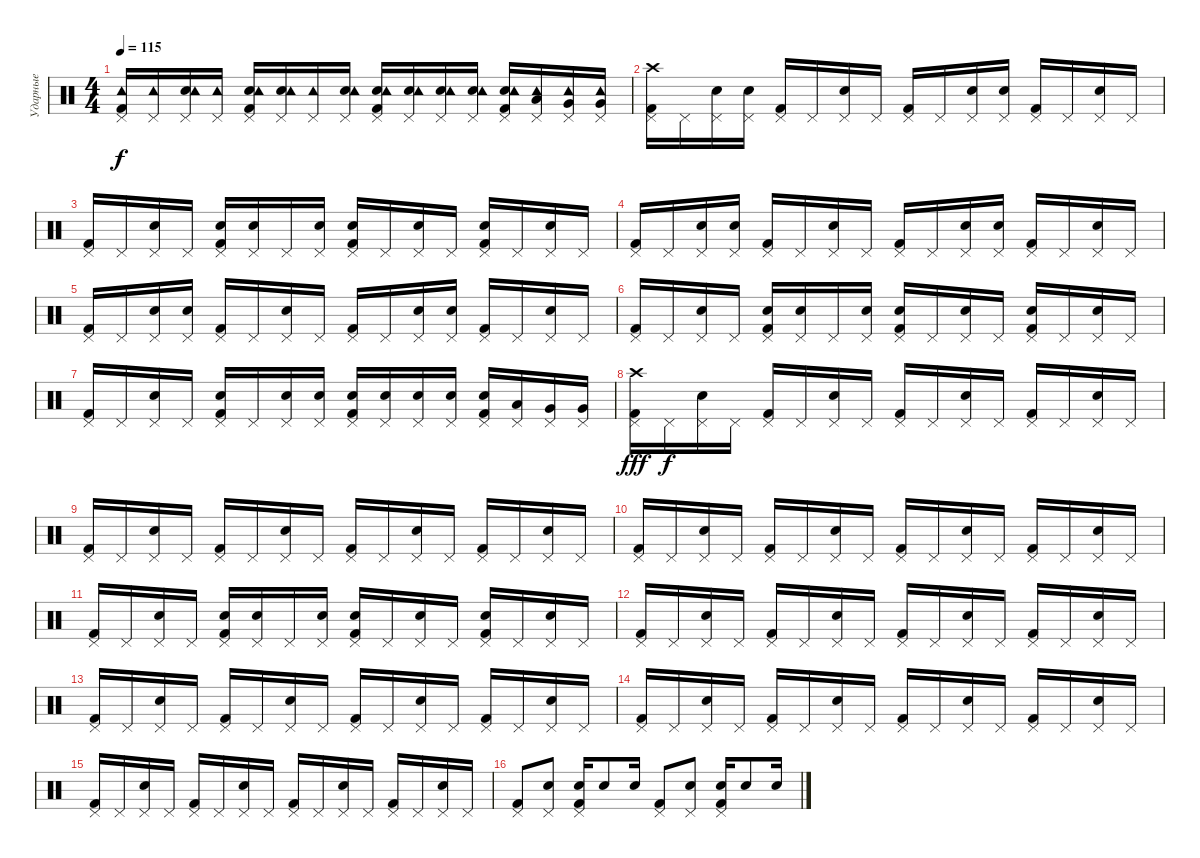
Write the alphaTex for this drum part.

\track ("Ударные" "Ударные") {instrument percussion}
\staff {score}
\articulation defaults
\ts (4 4)
\tempo 115
\clef neutral
\ks c
("Kick (hit) 2" "Pedal Hi-Hat (hit)" "Tambourine (hit)").16{dy f} ("Pedal Hi-Hat (hit)" "Tambourine (hit)").16 ("Pedal Hi-Hat (hit)" "Snare (hit) 2" "Tambourine (hit)").16 ("Pedal Hi-Hat (hit)" "Tambourine (hit)").16 ("Kick (hit) 2" "Pedal Hi-Hat (hit)" "Snare (hit) 2" "Tambourine (hit)").16 ("Pedal Hi-Hat (hit)" "Snare (hit) 2" "Tambourine (hit)").16 ("Pedal Hi-Hat (hit)" "Tambourine (hit)").16 ("Pedal Hi-Hat (hit)" "Snare (hit) 2" "Tambourine (hit)").16 ("Kick (hit) 2" "Pedal Hi-Hat (hit)" "Snare (hit) 2" "Tambourine (hit)").16 ("Pedal Hi-Hat (hit)" "Snare (hit) 2" "Tambourine (hit)").16 ("Pedal Hi-Hat (hit)" "Snare (hit) 2" "Tambourine (hit)").16 ("Pedal Hi-Hat (hit)" "Snare (hit) 2" "Tambourine (hit)").16 ("Kick (hit) 2" "Pedal Hi-Hat (hit)" "Snare (hit) 2" "Tambourine (hit)").16 ("Pedal Hi-Hat (hit)" "Low Tom (hit)" "Tambourine (hit)").16 ("Pedal Hi-Hat (hit)" "Very Low Tom (hit)" "Tambourine (hit)").16 ("Pedal Hi-Hat (hit)" "Very Low Tom (hit)" "Tambourine (hit)").16 |
("Kick (hit) 2" "Pedal Hi-Hat (hit)" "Crash high (hit)").16 "Pedal Hi-Hat (hit)".16 ("Pedal Hi-Hat (hit)" "Snare (hit) 2").16 ("Pedal Hi-Hat (hit)" "Snare (hit) 2").16 ("Kick (hit) 2" "Pedal Hi-Hat (hit)").16 "Pedal Hi-Hat (hit)".16 ("Pedal Hi-Hat (hit)" "Snare (hit) 2").16 "Pedal Hi-Hat (hit)".16 ("Kick (hit) 2" "Pedal Hi-Hat (hit)").16 "Pedal Hi-Hat (hit)".16 ("Pedal Hi-Hat (hit)" "Snare (hit) 2").16 ("Pedal Hi-Hat (hit)" "Snare (hit) 2").16 ("Kick (hit) 2" "Pedal Hi-Hat (hit)").16 "Pedal Hi-Hat (hit)".16 ("Pedal Hi-Hat (hit)" "Snare (hit) 2").16 "Pedal Hi-Hat (hit)".16 |
("Kick (hit) 2" "Pedal Hi-Hat (hit)").16 "Pedal Hi-Hat (hit)".16 ("Pedal Hi-Hat (hit)" "Snare (hit) 2").16 "Pedal Hi-Hat (hit)".16 ("Kick (hit) 2" "Pedal Hi-Hat (hit)" "Snare (hit) 2").16 ("Pedal Hi-Hat (hit)" "Snare (hit) 2").16 "Pedal Hi-Hat (hit)".16 ("Pedal Hi-Hat (hit)" "Snare (hit) 2").16 ("Kick (hit) 2" "Pedal Hi-Hat (hit)" "Snare (hit) 2").16 "Pedal Hi-Hat (hit)".16 ("Pedal Hi-Hat (hit)" "Snare (hit) 2").16 "Pedal Hi-Hat (hit)".16 ("Kick (hit) 2" "Pedal Hi-Hat (hit)" "Snare (hit) 2").16 "Pedal Hi-Hat (hit)".16 ("Pedal Hi-Hat (hit)" "Snare (hit) 2").16 "Pedal Hi-Hat (hit)".16 |
("Kick (hit) 2" "Pedal Hi-Hat (hit)").16 "Pedal Hi-Hat (hit)".16 ("Pedal Hi-Hat (hit)" "Snare (hit) 2").16 ("Pedal Hi-Hat (hit)" "Snare (hit) 2").16 ("Kick (hit) 2" "Pedal Hi-Hat (hit)").16 "Pedal Hi-Hat (hit)".16 ("Pedal Hi-Hat (hit)" "Snare (hit) 2").16 "Pedal Hi-Hat (hit)".16 ("Kick (hit) 2" "Pedal Hi-Hat (hit)").16 "Pedal Hi-Hat (hit)".16 ("Pedal Hi-Hat (hit)" "Snare (hit) 2").16 ("Pedal Hi-Hat (hit)" "Snare (hit) 2").16 ("Kick (hit) 2" "Pedal Hi-Hat (hit)").16 "Pedal Hi-Hat (hit)".16 ("Pedal Hi-Hat (hit)" "Snare (hit) 2").16 "Pedal Hi-Hat (hit)".16 |
("Kick (hit) 2" "Pedal Hi-Hat (hit)").16 "Pedal Hi-Hat (hit)".16 ("Pedal Hi-Hat (hit)" "Snare (hit) 2").16 ("Pedal Hi-Hat (hit)" "Snare (hit) 2").16 ("Kick (hit) 2" "Pedal Hi-Hat (hit)").16 "Pedal Hi-Hat (hit)".16 ("Pedal Hi-Hat (hit)" "Snare (hit) 2").16 "Pedal Hi-Hat (hit)".16 ("Kick (hit) 2" "Pedal Hi-Hat (hit)").16 "Pedal Hi-Hat (hit)".16 ("Pedal Hi-Hat (hit)" "Snare (hit) 2").16 ("Pedal Hi-Hat (hit)" "Snare (hit) 2").16 ("Kick (hit) 2" "Pedal Hi-Hat (hit)").16 "Pedal Hi-Hat (hit)".16 ("Pedal Hi-Hat (hit)" "Snare (hit) 2").16 "Pedal Hi-Hat (hit)".16 |
("Kick (hit) 2" "Pedal Hi-Hat (hit)").16 "Pedal Hi-Hat (hit)".16 ("Pedal Hi-Hat (hit)" "Snare (hit) 2").16 "Pedal Hi-Hat (hit)".16 ("Kick (hit) 2" "Pedal Hi-Hat (hit)" "Snare (hit) 2").16 ("Pedal Hi-Hat (hit)" "Snare (hit) 2").16 "Pedal Hi-Hat (hit)".16 ("Pedal Hi-Hat (hit)" "Snare (hit) 2").16 ("Kick (hit) 2" "Pedal Hi-Hat (hit)" "Snare (hit) 2").16 "Pedal Hi-Hat (hit)".16 ("Pedal Hi-Hat (hit)" "Snare (hit) 2").16 "Pedal Hi-Hat (hit)".16 ("Kick (hit) 2" "Pedal Hi-Hat (hit)" "Snare (hit) 2").16 "Pedal Hi-Hat (hit)".16 ("Pedal Hi-Hat (hit)" "Snare (hit) 2").16 "Pedal Hi-Hat (hit)".16 |
("Kick (hit) 2" "Pedal Hi-Hat (hit)").16 "Pedal Hi-Hat (hit)".16 ("Pedal Hi-Hat (hit)" "Snare (hit) 2").16 "Pedal Hi-Hat (hit)".16 ("Kick (hit) 2" "Pedal Hi-Hat (hit)" "Snare (hit) 2").16 "Pedal Hi-Hat (hit)".16 ("Pedal Hi-Hat (hit)" "Snare (hit) 2").16 ("Pedal Hi-Hat (hit)" "Snare (hit) 2").16 ("Kick (hit) 2" "Pedal Hi-Hat (hit)" "Snare (hit) 2").16 ("Pedal Hi-Hat (hit)" "Snare (hit) 2").16 ("Pedal Hi-Hat (hit)" "Snare (hit) 2").16 ("Pedal Hi-Hat (hit)" "Snare (hit) 2").16 ("Kick (hit) 2" "Pedal Hi-Hat (hit)" "Snare (hit) 2").16 ("Pedal Hi-Hat (hit)" "Low Tom (hit)").16 ("Pedal Hi-Hat (hit)" "Very Low Tom (hit)").16 ("Pedal Hi-Hat (hit)" "Very Low Tom (hit)").16 |
("Kick (hit) 2" "Pedal Hi-Hat (hit)" "Crash high (hit)").16{dy fff} "Pedal Hi-Hat (hit)".16{dy f} ("Pedal Hi-Hat (hit)" "Snare (hit) 2").16 "Pedal Hi-Hat (hit)".16 ("Kick (hit) 2" "Pedal Hi-Hat (hit)").16 "Pedal Hi-Hat (hit)".16 ("Pedal Hi-Hat (hit)" "Snare (hit) 2").16 "Pedal Hi-Hat (hit)".16 ("Kick (hit) 2" "Pedal Hi-Hat (hit)").16 "Pedal Hi-Hat (hit)".16 ("Pedal Hi-Hat (hit)" "Snare (hit) 2").16 "Pedal Hi-Hat (hit)".16 ("Kick (hit) 2" "Pedal Hi-Hat (hit)").16 "Pedal Hi-Hat (hit)".16 ("Pedal Hi-Hat (hit)" "Snare (hit) 2").16 "Pedal Hi-Hat (hit)".16 |
("Kick (hit) 2" "Pedal Hi-Hat (hit)").16 "Pedal Hi-Hat (hit)".16 ("Pedal Hi-Hat (hit)" "Snare (hit) 2").16 "Pedal Hi-Hat (hit)".16 ("Kick (hit) 2" "Pedal Hi-Hat (hit)").16 "Pedal Hi-Hat (hit)".16 ("Pedal Hi-Hat (hit)" "Snare (hit) 2").16 "Pedal Hi-Hat (hit)".16 ("Kick (hit) 2" "Pedal Hi-Hat (hit)").16 "Pedal Hi-Hat (hit)".16 ("Pedal Hi-Hat (hit)" "Snare (hit) 2").16 "Pedal Hi-Hat (hit)".16 ("Kick (hit) 2" "Pedal Hi-Hat (hit)").16 "Pedal Hi-Hat (hit)".16 ("Pedal Hi-Hat (hit)" "Snare (hit) 2").16 "Pedal Hi-Hat (hit)".16 |
("Kick (hit) 2" "Pedal Hi-Hat (hit)").16 "Pedal Hi-Hat (hit)".16 ("Pedal Hi-Hat (hit)" "Snare (hit) 2").16 "Pedal Hi-Hat (hit)".16 ("Kick (hit) 2" "Pedal Hi-Hat (hit)").16 "Pedal Hi-Hat (hit)".16 ("Pedal Hi-Hat (hit)" "Snare (hit) 2").16 "Pedal Hi-Hat (hit)".16 ("Kick (hit) 2" "Pedal Hi-Hat (hit)").16 "Pedal Hi-Hat (hit)".16 ("Pedal Hi-Hat (hit)" "Snare (hit) 2").16 "Pedal Hi-Hat (hit)".16 ("Kick (hit) 2" "Pedal Hi-Hat (hit)").16 "Pedal Hi-Hat (hit)".16 ("Pedal Hi-Hat (hit)" "Snare (hit) 2").16 "Pedal Hi-Hat (hit)".16 |
("Kick (hit) 2" "Pedal Hi-Hat (hit)").16 "Pedal Hi-Hat (hit)".16 ("Pedal Hi-Hat (hit)" "Snare (hit) 2").16 "Pedal Hi-Hat (hit)".16 ("Kick (hit) 2" "Pedal Hi-Hat (hit)" "Snare (hit) 2").16 ("Pedal Hi-Hat (hit)" "Snare (hit) 2").16 "Pedal Hi-Hat (hit)".16 ("Pedal Hi-Hat (hit)" "Snare (hit) 2").16 ("Kick (hit) 2" "Pedal Hi-Hat (hit)" "Snare (hit) 2").16 "Pedal Hi-Hat (hit)".16 ("Pedal Hi-Hat (hit)" "Snare (hit) 2").16 "Pedal Hi-Hat (hit)".16 ("Kick (hit) 2" "Pedal Hi-Hat (hit)" "Snare (hit) 2").16 "Pedal Hi-Hat (hit)".16 ("Pedal Hi-Hat (hit)" "Snare (hit) 2").16 "Pedal Hi-Hat (hit)".16 |
("Kick (hit) 2" "Pedal Hi-Hat (hit)").16 "Pedal Hi-Hat (hit)".16 ("Pedal Hi-Hat (hit)" "Snare (hit) 2").16 "Pedal Hi-Hat (hit)".16 ("Kick (hit) 2" "Pedal Hi-Hat (hit)").16 "Pedal Hi-Hat (hit)".16 ("Pedal Hi-Hat (hit)" "Snare (hit) 2").16 "Pedal Hi-Hat (hit)".16 ("Kick (hit) 2" "Pedal Hi-Hat (hit)").16 "Pedal Hi-Hat (hit)".16 ("Pedal Hi-Hat (hit)" "Snare (hit) 2").16 "Pedal Hi-Hat (hit)".16 ("Kick (hit) 2" "Pedal Hi-Hat (hit)").16 "Pedal Hi-Hat (hit)".16 ("Pedal Hi-Hat (hit)" "Snare (hit) 2").16 "Pedal Hi-Hat (hit)".16 |
("Kick (hit) 2" "Pedal Hi-Hat (hit)").16 "Pedal Hi-Hat (hit)".16 ("Pedal Hi-Hat (hit)" "Snare (hit) 2").16 "Pedal Hi-Hat (hit)".16 ("Kick (hit) 2" "Pedal Hi-Hat (hit)").16 "Pedal Hi-Hat (hit)".16 ("Pedal Hi-Hat (hit)" "Snare (hit) 2").16 "Pedal Hi-Hat (hit)".16 ("Kick (hit) 2" "Pedal Hi-Hat (hit)").16 "Pedal Hi-Hat (hit)".16 ("Pedal Hi-Hat (hit)" "Snare (hit) 2").16 "Pedal Hi-Hat (hit)".16 ("Kick (hit) 2" "Pedal Hi-Hat (hit)").16 "Pedal Hi-Hat (hit)".16 ("Pedal Hi-Hat (hit)" "Snare (hit) 2").16 "Pedal Hi-Hat (hit)".16 |
("Kick (hit) 2" "Pedal Hi-Hat (hit)").16 "Pedal Hi-Hat (hit)".16 ("Pedal Hi-Hat (hit)" "Snare (hit) 2").16 "Pedal Hi-Hat (hit)".16 ("Kick (hit) 2" "Pedal Hi-Hat (hit)").16 "Pedal Hi-Hat (hit)".16 ("Pedal Hi-Hat (hit)" "Snare (hit) 2").16 "Pedal Hi-Hat (hit)".16 ("Kick (hit) 2" "Pedal Hi-Hat (hit)").16 "Pedal Hi-Hat (hit)".16 ("Pedal Hi-Hat (hit)" "Snare (hit) 2").16 "Pedal Hi-Hat (hit)".16 ("Kick (hit) 2" "Pedal Hi-Hat (hit)").16 "Pedal Hi-Hat (hit)".16 ("Pedal Hi-Hat (hit)" "Snare (hit) 2").16 "Pedal Hi-Hat (hit)".16 |
("Kick (hit) 2" "Pedal Hi-Hat (hit)").16 "Pedal Hi-Hat (hit)".16 ("Pedal Hi-Hat (hit)" "Snare (hit) 2").16 "Pedal Hi-Hat (hit)".16 ("Kick (hit) 2" "Pedal Hi-Hat (hit)").16 "Pedal Hi-Hat (hit)".16 ("Pedal Hi-Hat (hit)" "Snare (hit) 2").16 "Pedal Hi-Hat (hit)".16 ("Kick (hit) 2" "Pedal Hi-Hat (hit)").16 "Pedal Hi-Hat (hit)".16 ("Pedal Hi-Hat (hit)" "Snare (hit) 2").16 "Pedal Hi-Hat (hit)".16 ("Kick (hit) 2" "Pedal Hi-Hat (hit)").16 "Pedal Hi-Hat (hit)".16 ("Pedal Hi-Hat (hit)" "Snare (hit) 2").16 "Pedal Hi-Hat (hit)".16 |
("Kick (hit) 2" "Pedal Hi-Hat (hit)").8 ("Pedal Hi-Hat (hit)" "Snare (hit) 2").8 ("Kick (hit) 2" "Pedal Hi-Hat (hit)" "Snare (hit) 2").16 "Snare (hit) 2".8 "Snare (hit) 2".16 ("Kick (hit) 2" "Pedal Hi-Hat (hit)").8 ("Pedal Hi-Hat (hit)" "Snare (hit) 2").8 ("Kick (hit) 2" "Pedal Hi-Hat (hit)" "Snare (hit) 2").16 "Snare (hit) 2".8 "Snare (hit) 2".16
